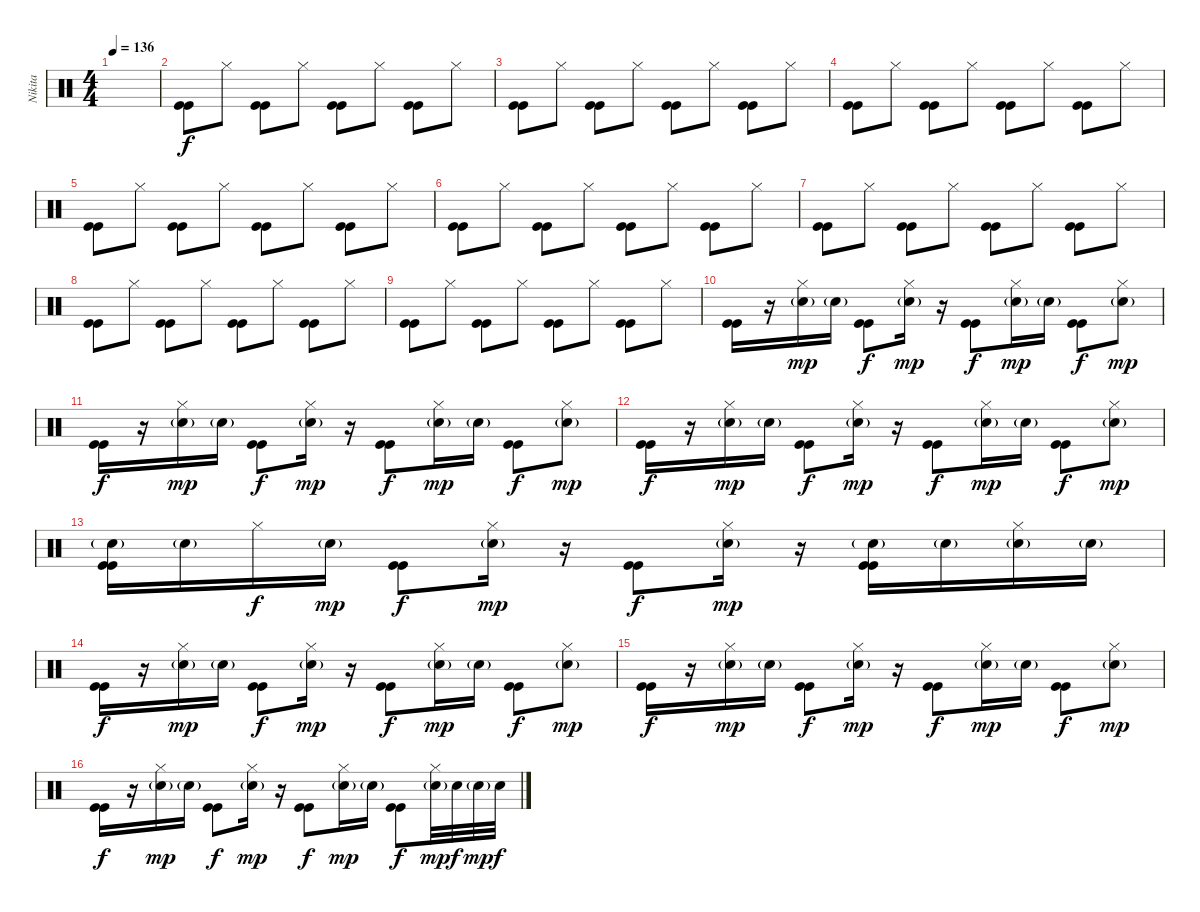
\track ("Nikita" "Nikita") {instrument percussion}
\staff {score}
\articulation defaults
\ts (4 4)
\tempo 136
\clef neutral
\ks c
|
("Kick (hit)" "Kick (hit)").8 "Hi-Hat (closed)".8 ("Kick (hit)" "Kick (hit)").8 "Hi-Hat (closed)".8 ("Kick (hit)" "Kick (hit)").8 "Hi-Hat (closed)".8 ("Kick (hit)" "Kick (hit)").8 "Hi-Hat (closed)".8 |
("Kick (hit)" "Kick (hit)").8 "Hi-Hat (closed)".8 ("Kick (hit)" "Kick (hit)").8 "Hi-Hat (closed)".8 ("Kick (hit)" "Kick (hit)").8 "Hi-Hat (closed)".8 ("Kick (hit)" "Kick (hit)").8 "Hi-Hat (closed)".8 |
("Kick (hit)" "Kick (hit)").8 "Hi-Hat (closed)".8 ("Kick (hit)" "Kick (hit)").8 "Hi-Hat (closed)".8 ("Kick (hit)" "Kick (hit)").8 "Hi-Hat (closed)".8 ("Kick (hit)" "Kick (hit)").8 "Hi-Hat (closed)".8 |
("Kick (hit)" "Kick (hit)").8 "Hi-Hat (closed)".8 ("Kick (hit)" "Kick (hit)").8 "Hi-Hat (closed)".8 ("Kick (hit)" "Kick (hit)").8 "Hi-Hat (closed)".8 ("Kick (hit)" "Kick (hit)").8 "Hi-Hat (closed)".8 |
("Kick (hit)" "Kick (hit)").8 "Hi-Hat (closed)".8 ("Kick (hit)" "Kick (hit)").8 "Hi-Hat (closed)".8 ("Kick (hit)" "Kick (hit)").8 "Hi-Hat (closed)".8 ("Kick (hit)" "Kick (hit)").8 "Hi-Hat (closed)".8 |
("Kick (hit)" "Kick (hit)").8 "Hi-Hat (closed)".8 ("Kick (hit)" "Kick (hit)").8 "Hi-Hat (closed)".8 ("Kick (hit)" "Kick (hit)").8 "Hi-Hat (closed)".8 ("Kick (hit)" "Kick (hit)").8 "Hi-Hat (closed)".8 |
("Kick (hit)" "Kick (hit)").8 "Hi-Hat (closed)".8 ("Kick (hit)" "Kick (hit)").8 "Hi-Hat (closed)".8 ("Kick (hit)" "Kick (hit)").8 "Hi-Hat (closed)".8 ("Kick (hit)" "Kick (hit)").8 "Hi-Hat (closed)".8 |
("Kick (hit)" "Kick (hit)").8 "Hi-Hat (closed)".8 ("Kick (hit)" "Kick (hit)").8 "Hi-Hat (closed)".8 ("Kick (hit)" "Kick (hit)").8 "Hi-Hat (closed)".8 ("Kick (hit)" "Kick (hit)").8 "Hi-Hat (closed)".8 |
("Kick (hit)" "Kick (hit)").16 r.16 ("Hi-Hat (closed)" "Snare (hit) 2"{g}).16{dy mp} "Snare (hit) 2"{g}.16 ("Kick (hit)" "Kick (hit)").8{dy f} ("Hi-Hat (closed)" "Snare (hit) 2"{g}).16{dy mp} r.16 ("Kick (hit)" "Kick (hit)").8{dy f} ("Hi-Hat (closed)" "Snare (hit) 2"{g}).16{dy mp} "Snare (hit) 2"{g}.16 ("Kick (hit)" "Kick (hit)").8{dy f} ("Hi-Hat (closed)" "Snare (hit) 2"{g}).8{dy mp} |
("Kick (hit)" "Kick (hit)").16{dy f} r.16 ("Hi-Hat (closed)" "Snare (hit) 2"{g}).16{dy mp} "Snare (hit) 2"{g}.16 ("Kick (hit)" "Kick (hit)").8{dy f} ("Hi-Hat (closed)" "Snare (hit) 2"{g}).16{dy mp} r.16 ("Kick (hit)" "Kick (hit)").8{dy f} ("Hi-Hat (closed)" "Snare (hit) 2"{g}).16{dy mp} "Snare (hit) 2"{g}.16 ("Kick (hit)" "Kick (hit)").8{dy f} ("Hi-Hat (closed)" "Snare (hit) 2"{g}).8{dy mp} |
("Kick (hit)" "Kick (hit)").16{dy f} r.16 ("Hi-Hat (closed)" "Snare (hit) 2"{g}).16{dy mp} "Snare (hit) 2"{g}.16 ("Kick (hit)" "Kick (hit)").8{dy f} ("Hi-Hat (closed)" "Snare (hit) 2"{g}).16{dy mp} r.16 ("Kick (hit)" "Kick (hit)").8{dy f} ("Hi-Hat (closed)" "Snare (hit) 2"{g}).16{dy mp} "Snare (hit) 2"{g}.16 ("Kick (hit)" "Kick (hit)").8{dy f} ("Hi-Hat (closed)" "Snare (hit) 2"{g}).8{dy mp} |
("Kick (hit)" "Kick (hit)" "Snare (hit) 2"{g}).16 "Snare (hit) 2"{g}.16 "Hi-Hat (closed)".16{dy f} "Snare (hit) 2"{g}.16{dy mp} ("Kick (hit)" "Kick (hit)").8{dy f} ("Hi-Hat (closed)" "Snare (hit) 2"{g}).16{dy mp} r.16 ("Kick (hit)" "Kick (hit)").8{dy f} ("Hi-Hat (closed)" "Snare (hit) 2"{g}).16{dy mp} r.16 ("Kick (hit)" "Kick (hit)" "Snare (hit) 2"{g}).16 "Snare (hit) 2"{g}.16 ("Hi-Hat (closed)" "Snare (hit) 2"{g}).16 "Snare (hit) 2"{g}.16 |
("Kick (hit)" "Kick (hit)").16{dy f} r.16 ("Hi-Hat (closed)" "Snare (hit) 2"{g}).16{dy mp} "Snare (hit) 2"{g}.16 ("Kick (hit)" "Kick (hit)").8{dy f} ("Hi-Hat (closed)" "Snare (hit) 2"{g}).16{dy mp} r.16 ("Kick (hit)" "Kick (hit)").8{dy f} ("Hi-Hat (closed)" "Snare (hit) 2"{g}).16{dy mp} "Snare (hit) 2"{g}.16 ("Kick (hit)" "Kick (hit)").8{dy f} ("Hi-Hat (closed)" "Snare (hit) 2"{g}).8{dy mp} |
("Kick (hit)" "Kick (hit)").16{dy f} r.16 ("Hi-Hat (closed)" "Snare (hit) 2"{g}).16{dy mp} "Snare (hit) 2"{g}.16 ("Kick (hit)" "Kick (hit)").8{dy f} ("Hi-Hat (closed)" "Snare (hit) 2"{g}).16{dy mp} r.16 ("Kick (hit)" "Kick (hit)").8{dy f} ("Hi-Hat (closed)" "Snare (hit) 2"{g}).16{dy mp} "Snare (hit) 2"{g}.16 ("Kick (hit)" "Kick (hit)").8{dy f} ("Hi-Hat (closed)" "Snare (hit) 2"{g}).8{dy mp} |
("Kick (hit)" "Kick (hit)").16{dy f} r.16 ("Hi-Hat (closed)" "Snare (hit) 2"{g}).16{dy mp} "Snare (hit) 2"{g}.16 ("Kick (hit)" "Kick (hit)").8{dy f} ("Hi-Hat (closed)" "Snare (hit) 2"{g}).16{dy mp} r.16 ("Kick (hit)" "Kick (hit)").8{dy f} ("Hi-Hat (closed)" "Snare (hit) 2"{g}).16{dy mp} "Snare (hit) 2"{g}.16 ("Kick (hit)" "Kick (hit)").8{dy f} ("Hi-Hat (closed)" "Snare (hit) 2"{g}).32{dy mp} "Snare (hit) 2".32{dy f} "Snare (hit) 2"{g}.32{dy mp} "Snare (hit) 2".32{dy f}
